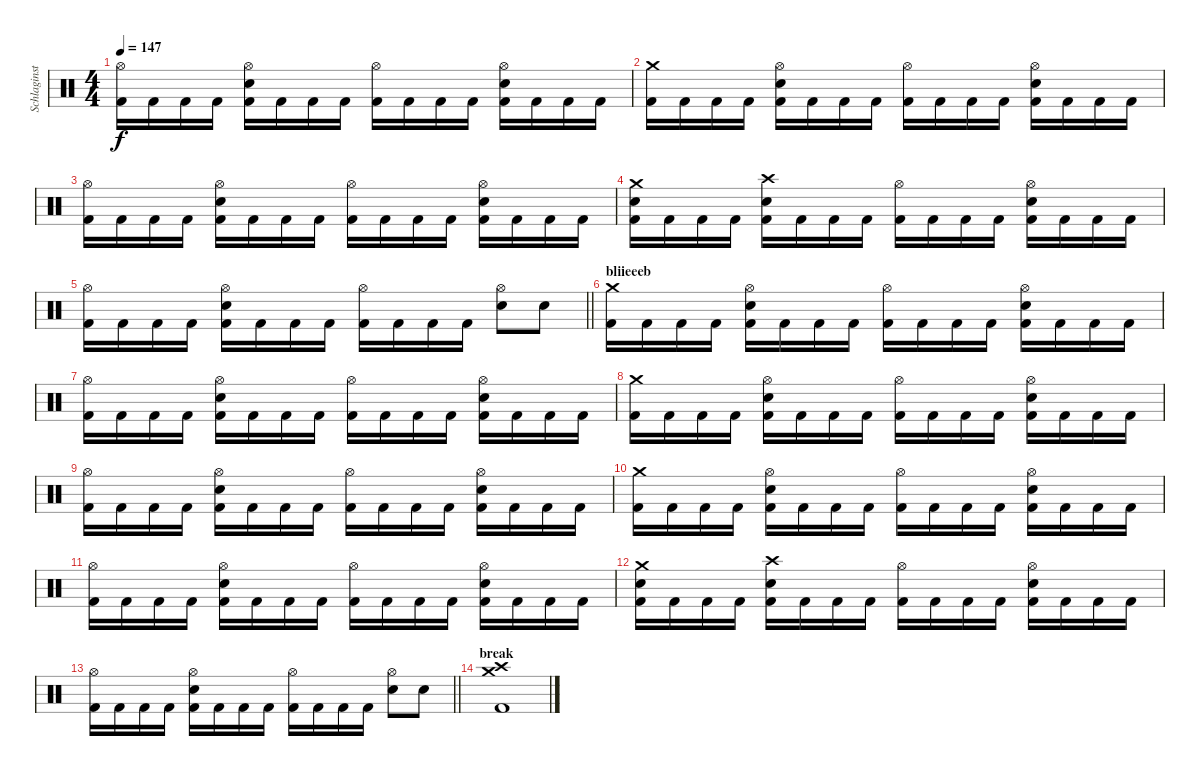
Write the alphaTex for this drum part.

\track ("Schlaginstrumente - Auswahl" "Schlaginst") {instrument percussion}
\staff {score}
\articulation defaults
\ts (4 4)
\tempo 147
\clef neutral
\ks c
("Hi-Hat (open)" "Kick (hit) 2").16{dy f} "Kick (hit) 2".16 "Kick (hit) 2".16 "Kick (hit) 2".16 ("Hi-Hat (open)" "Snare (hit) 2" "Kick (hit) 2").16 "Kick (hit) 2".16 "Kick (hit) 2".16 "Kick (hit) 2".16 ("Hi-Hat (open)" "Kick (hit) 2").16 "Kick (hit) 2".16 "Kick (hit) 2".16 "Kick (hit) 2".16 ("Hi-Hat (open)" "Snare (hit) 2" "Kick (hit) 2").16 "Kick (hit) 2".16 "Kick (hit) 2".16 "Kick (hit) 2".16 |
("Crash medium (hit)" "Kick (hit) 2").16 "Kick (hit) 2".16 "Kick (hit) 2".16 "Kick (hit) 2".16 ("Hi-Hat (open)" "Snare (hit) 2" "Kick (hit) 2").16 "Kick (hit) 2".16 "Kick (hit) 2".16 "Kick (hit) 2".16 ("Hi-Hat (open)" "Kick (hit) 2").16 "Kick (hit) 2".16 "Kick (hit) 2".16 "Kick (hit) 2".16 ("Hi-Hat (open)" "Snare (hit) 2" "Kick (hit) 2").16 "Kick (hit) 2".16 "Kick (hit) 2".16 "Kick (hit) 2".16 |
("Hi-Hat (open)" "Kick (hit) 2").16 "Kick (hit) 2".16 "Kick (hit) 2".16 "Kick (hit) 2".16 ("Hi-Hat (open)" "Snare (hit) 2" "Kick (hit) 2").16 "Kick (hit) 2".16 "Kick (hit) 2".16 "Kick (hit) 2".16 ("Hi-Hat (open)" "Kick (hit) 2").16 "Kick (hit) 2".16 "Kick (hit) 2".16 "Kick (hit) 2".16 ("Hi-Hat (open)" "Snare (hit) 2" "Kick (hit) 2").16 "Kick (hit) 2".16 "Kick (hit) 2".16 "Kick (hit) 2".16 |
("Crash medium (hit)" "Snare (hit) 2" "Kick (hit) 2").16 "Kick (hit) 2".16 "Kick (hit) 2".16 "Kick (hit) 2".16 ("Crash high (hit)" "Snare (hit) 2" "Kick (hit) 2").16 "Kick (hit) 2".16 "Kick (hit) 2".16 "Kick (hit) 2".16 ("Hi-Hat (open)" "Kick (hit) 2").16 "Kick (hit) 2".16 "Kick (hit) 2".16 "Kick (hit) 2".16 ("Hi-Hat (open)" "Snare (hit) 2" "Kick (hit) 2").16 "Kick (hit) 2".16 "Kick (hit) 2".16 "Kick (hit) 2".16 |
\barLineRight lightlight
("Hi-Hat (open)" "Kick (hit) 2").16 "Kick (hit) 2".16 "Kick (hit) 2".16 "Kick (hit) 2".16 ("Hi-Hat (open)" "Snare (hit) 2" "Kick (hit) 2").16 "Kick (hit) 2".16 "Kick (hit) 2".16 "Kick (hit) 2".16 ("Hi-Hat (open)" "Kick (hit) 2").16 "Kick (hit) 2".16 "Kick (hit) 2".16 "Kick (hit) 2".16 ("Hi-Hat (open)" "Snare (hit) 2").8 "Snare (hit) 2".8 |
\section ("" "bliieeeb")
("Crash medium (hit)" "Kick (hit) 2").16 "Kick (hit) 2".16 "Kick (hit) 2".16 "Kick (hit) 2".16 ("Hi-Hat (open)" "Snare (hit) 2" "Kick (hit) 2").16 "Kick (hit) 2".16 "Kick (hit) 2".16 "Kick (hit) 2".16 ("Hi-Hat (open)" "Kick (hit) 2").16 "Kick (hit) 2".16 "Kick (hit) 2".16 "Kick (hit) 2".16 ("Hi-Hat (open)" "Snare (hit) 2" "Kick (hit) 2").16 "Kick (hit) 2".16 "Kick (hit) 2".16 "Kick (hit) 2".16 |
("Hi-Hat (open)" "Kick (hit) 2").16 "Kick (hit) 2".16 "Kick (hit) 2".16 "Kick (hit) 2".16 ("Hi-Hat (open)" "Snare (hit) 2" "Kick (hit) 2").16 "Kick (hit) 2".16 "Kick (hit) 2".16 "Kick (hit) 2".16 ("Hi-Hat (open)" "Kick (hit) 2").16 "Kick (hit) 2".16 "Kick (hit) 2".16 "Kick (hit) 2".16 ("Hi-Hat (open)" "Snare (hit) 2" "Kick (hit) 2").16 "Kick (hit) 2".16 "Kick (hit) 2".16 "Kick (hit) 2".16 |
("Crash medium (hit)" "Kick (hit) 2").16 "Kick (hit) 2".16 "Kick (hit) 2".16 "Kick (hit) 2".16 ("Hi-Hat (open)" "Snare (hit) 2" "Kick (hit) 2").16 "Kick (hit) 2".16 "Kick (hit) 2".16 "Kick (hit) 2".16 ("Hi-Hat (open)" "Kick (hit) 2").16 "Kick (hit) 2".16 "Kick (hit) 2".16 "Kick (hit) 2".16 ("Hi-Hat (open)" "Snare (hit) 2" "Kick (hit) 2").16 "Kick (hit) 2".16 "Kick (hit) 2".16 "Kick (hit) 2".16 |
("Hi-Hat (open)" "Kick (hit) 2").16 "Kick (hit) 2".16 "Kick (hit) 2".16 "Kick (hit) 2".16 ("Hi-Hat (open)" "Snare (hit) 2" "Kick (hit) 2").16 "Kick (hit) 2".16 "Kick (hit) 2".16 "Kick (hit) 2".16 ("Hi-Hat (open)" "Kick (hit) 2").16 "Kick (hit) 2".16 "Kick (hit) 2".16 "Kick (hit) 2".16 ("Hi-Hat (open)" "Snare (hit) 2" "Kick (hit) 2").16 "Kick (hit) 2".16 "Kick (hit) 2".16 "Kick (hit) 2".16 |
("Crash medium (hit)" "Kick (hit) 2").16 "Kick (hit) 2".16 "Kick (hit) 2".16 "Kick (hit) 2".16 ("Hi-Hat (open)" "Snare (hit) 2" "Kick (hit) 2").16 "Kick (hit) 2".16 "Kick (hit) 2".16 "Kick (hit) 2".16 ("Hi-Hat (open)" "Kick (hit) 2").16 "Kick (hit) 2".16 "Kick (hit) 2".16 "Kick (hit) 2".16 ("Hi-Hat (open)" "Snare (hit) 2" "Kick (hit) 2").16 "Kick (hit) 2".16 "Kick (hit) 2".16 "Kick (hit) 2".16 |
("Hi-Hat (open)" "Kick (hit) 2").16 "Kick (hit) 2".16 "Kick (hit) 2".16 "Kick (hit) 2".16 ("Hi-Hat (open)" "Snare (hit) 2" "Kick (hit) 2").16 "Kick (hit) 2".16 "Kick (hit) 2".16 "Kick (hit) 2".16 ("Hi-Hat (open)" "Kick (hit) 2").16 "Kick (hit) 2".16 "Kick (hit) 2".16 "Kick (hit) 2".16 ("Hi-Hat (open)" "Snare (hit) 2" "Kick (hit) 2").16 "Kick (hit) 2".16 "Kick (hit) 2".16 "Kick (hit) 2".16 |
("Crash medium (hit)" "Snare (hit) 2" "Kick (hit) 2").16 "Kick (hit) 2".16 "Kick (hit) 2".16 "Kick (hit) 2".16 ("Crash high (hit)" "Snare (hit) 2" "Kick (hit) 2").16 "Kick (hit) 2".16 "Kick (hit) 2".16 "Kick (hit) 2".16 ("Hi-Hat (open)" "Kick (hit) 2").16 "Kick (hit) 2".16 "Kick (hit) 2".16 "Kick (hit) 2".16 ("Hi-Hat (open)" "Snare (hit) 2" "Kick (hit) 2").16 "Kick (hit) 2".16 "Kick (hit) 2".16 "Kick (hit) 2".16 |
\barLineRight lightlight
("Hi-Hat (open)" "Kick (hit) 2").16 "Kick (hit) 2".16 "Kick (hit) 2".16 "Kick (hit) 2".16 ("Hi-Hat (open)" "Snare (hit) 2" "Kick (hit) 2").16 "Kick (hit) 2".16 "Kick (hit) 2".16 "Kick (hit) 2".16 ("Hi-Hat (open)" "Kick (hit) 2").16 "Kick (hit) 2".16 "Kick (hit) 2".16 "Kick (hit) 2".16 ("Hi-Hat (open)" "Snare (hit) 2").8 "Snare (hit) 2".8 |
\section ("" "break")
("Crash high (hit)" "Crash medium (hit)" "Kick (hit) 2").1
